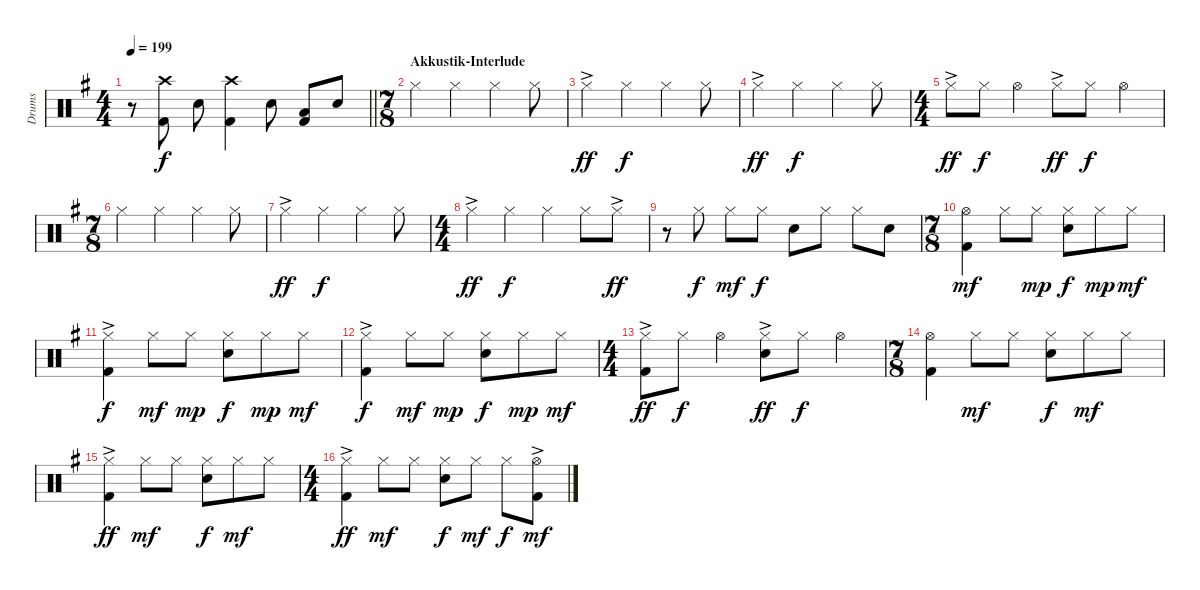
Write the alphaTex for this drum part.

\track ("Drums" "Drums") {instrument percussion}
\staff {score}
\articulation defaults
\ts (4 4)
\tempo 199
\clef neutral
\barLineRight lightlight
\ks eminor
r.8{dy f} ("Crash high (hit)" "Kick (hit) 2").8 "Electric Snare (hit)".8 ("Crash high (hit)" "Kick (hit) 2").4 "Electric Snare (hit)".8 ("Low Tom (hit)" "Kick (hit) 2").8 "Electric Snare (hit)".8 |
\ts (7 8)
\section ("" "Akkustik-Interlude")
"Hi-Hat (closed)".4 "Hi-Hat (closed)".4 "Hi-Hat (closed)".4 "Hi-Hat (closed)".8 |
"Hi-Hat (closed)"{ac}.4{dy ff} "Hi-Hat (closed)".4{dy f} "Hi-Hat (closed)".4 "Hi-Hat (closed)".8 |
"Hi-Hat (closed)"{ac}.4{dy ff} "Hi-Hat (closed)".4{dy f} "Hi-Hat (closed)".4 "Hi-Hat (closed)".8 |
\ts (4 4)
"Hi-Hat (closed)"{ac}.8{dy ff} "Hi-Hat (closed)".8{dy f} "Hi-Hat (open)".4 "Hi-Hat (closed)"{ac}.8{dy ff} "Hi-Hat (closed)".8{dy f} "Hi-Hat (open)".4 |
\ts (7 8)
"Hi-Hat (closed)".4 "Hi-Hat (closed)".4 "Hi-Hat (closed)".4 "Hi-Hat (closed)".8 |
"Hi-Hat (closed)"{ac}.4{dy ff} "Hi-Hat (closed)".4{dy f} "Hi-Hat (closed)".4 "Hi-Hat (closed)".8 |
\ts (4 4)
"Hi-Hat (closed)"{ac}.4{dy ff} "Hi-Hat (closed)".4{dy f} "Hi-Hat (closed)".4 "Hi-Hat (closed)".8 "Hi-Hat (closed)"{ac}.8{dy ff} |
r.8 "Hi-Hat (closed)".8{dy f} "Hi-Hat (closed)".8{dy mf} "Hi-Hat (closed)".8{dy f} "Electric Snare (hit)".8 "Hi-Hat (closed)".8 "Hi-Hat (closed)".8 "Electric Snare (hit)".8 |
\ts (7 8)
("Hi-Hat (open)" "Kick (hit) 2").4{dy mf} "Hi-Hat (closed)".8 "Hi-Hat (closed)".8{dy mp} ("Hi-Hat (closed)" "Electric Snare (hit)").8{dy f} "Hi-Hat (closed)".8{dy mp} "Hi-Hat (closed)".8{dy mf} |
("Hi-Hat (closed)"{ac} "Kick (hit) 2").4{dy f} "Hi-Hat (closed)".8{dy mf} "Hi-Hat (closed)".8{dy mp} ("Hi-Hat (closed)" "Electric Snare (hit)").8{dy f} "Hi-Hat (closed)".8{dy mp} "Hi-Hat (closed)".8{dy mf} |
("Hi-Hat (closed)"{ac} "Kick (hit) 2").4{dy f} "Hi-Hat (closed)".8{dy mf} "Hi-Hat (closed)".8{dy mp} ("Hi-Hat (closed)" "Electric Snare (hit)").8{dy f} "Hi-Hat (closed)".8{dy mp} "Hi-Hat (closed)".8{dy mf} |
\ts (4 4)
("Hi-Hat (closed)"{ac} "Kick (hit) 2").8{dy ff} "Hi-Hat (closed)".8{dy f} "Hi-Hat (open)".4 ("Hi-Hat (closed)"{ac} "Electric Snare (hit)").8{dy ff} "Hi-Hat (closed)".8{dy f} "Hi-Hat (open)".4 |
\ts (7 8)
("Hi-Hat (open)" "Kick (hit) 2").4 "Hi-Hat (closed)".8{dy mf} "Hi-Hat (closed)".8 ("Hi-Hat (closed)" "Electric Snare (hit)").8{dy f} "Hi-Hat (closed)".8{dy mf} "Hi-Hat (closed)".8 |
("Hi-Hat (closed)"{ac} "Kick (hit) 2").4{dy ff} "Hi-Hat (closed)".8{dy mf} "Hi-Hat (closed)".8 ("Hi-Hat (closed)" "Electric Snare (hit)").8{dy f} "Hi-Hat (closed)".8{dy mf} "Hi-Hat (closed)".8 |
\ts (4 4)
("Hi-Hat (closed)"{ac} "Kick (hit) 2").4{dy ff} "Hi-Hat (closed)".8{dy mf} "Hi-Hat (closed)".8 ("Hi-Hat (closed)" "Electric Snare (hit)").8{dy f} "Hi-Hat (closed)".8{dy mf} "Hi-Hat (closed)".8{dy f} ("Hi-Hat (open)"{ac} "Kick (hit) 2").8{dy mf}
